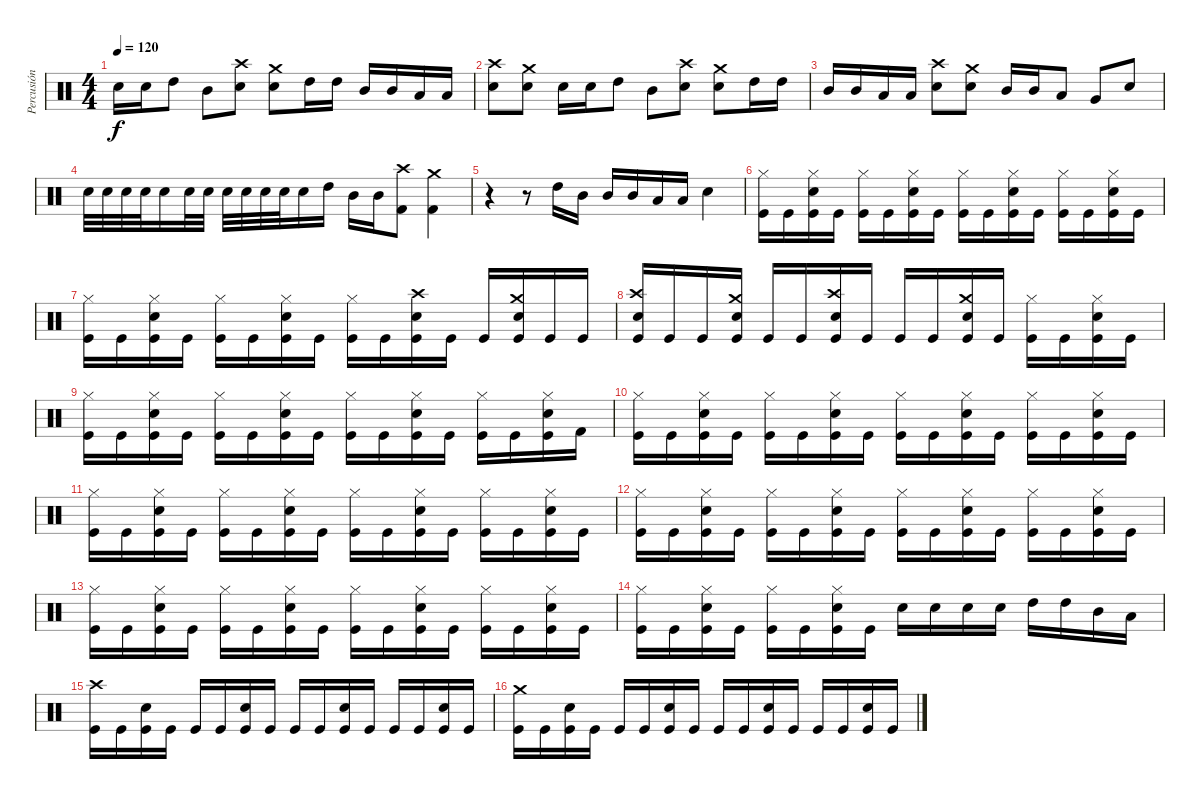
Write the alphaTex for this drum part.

\track ("Percusión" "Percusión") {instrument percussion}
\staff {score}
\articulation defaults
\ts (4 4)
\tempo 120
\clef neutral
\ks c "Snare (hit) 2".16{dy f} "Snare (hit) 2".16 "High Tom (hit)".8 "Mid Tom (hit)".8
("Crash high (hit)" "Snare (hit) 2").8 ("Crash medium (hit)" "Snare (hit) 2").8 "High Tom (hit)".16 "High Tom (hit)".16 "Mid Tom (hit)".16 "Mid Tom (hit)".16 "Low Tom (hit)".16 "Low Tom (hit)".16 |
("Crash high (hit)" "Snare (hit) 2").8 ("Crash medium (hit)" "Snare (hit) 2").8 "Snare (hit) 2".16 "Snare (hit) 2".16 "High Tom (hit)".8 "Mid Tom (hit)".8 ("Crash high (hit)" "Snare (hit) 2").8 ("Crash medium (hit)" "Snare (hit) 2").8 "High Tom (hit)".16 "High Tom (hit)".16 |
"Mid Tom (hit)".16 "Mid Tom (hit)".16 "Low Tom (hit)".16 "Low Tom (hit)".16 ("Crash high (hit)" "Snare (hit) 2").8 ("Crash medium (hit)" "Snare (hit) 2").8 "Mid Tom (hit)".16 "Mid Tom (hit)".16 "Low Tom (hit)".8 "Very Low Tom (hit)".8 "Snare (hit) 2".8 |
"Snare (hit) 2".32 "Snare (hit) 2".32 "Snare (hit) 2".32 "Snare (hit) 2".32 "Snare (hit) 2".16 "Snare (hit) 2".32 "Snare (hit) 2".32 "Snare (hit) 2".32 "Snare (hit) 2".32 "Snare (hit) 2".32 "Snare (hit) 2".32 "Snare (hit) 2".16 "High Tom (hit)".16 "Mid Tom (hit)".16 "Mid Tom (hit)".16 ("Crash high (hit)" "Kick (hit) 2").8 ("Crash medium (hit)" "Kick (hit) 2").4 |
r.4 r.8 "High Tom (hit)".16 "Mid Tom (hit)".16 "Mid Tom (hit)".16 "Mid Tom (hit)".16 "Low Tom (hit)".16 "Low Tom (hit)".16 "Snare (hit) 2".4 |
("Hi-Hat (closed)" "Kick (hit)").16 "Kick (hit)".16 ("Hi-Hat (closed)" "Snare (hit) 2" "Kick (hit)").16 "Kick (hit)".16 ("Hi-Hat (closed)" "Kick (hit)").16 "Kick (hit)".16 ("Hi-Hat (closed)" "Snare (hit) 2" "Kick (hit)").16 "Kick (hit)".16 ("Hi-Hat (closed)" "Kick (hit)").16 "Kick (hit)".16 ("Hi-Hat (closed)" "Snare (hit) 2" "Kick (hit)").16 "Kick (hit)".16 ("Hi-Hat (closed)" "Kick (hit)").16 "Kick (hit)".16 ("Hi-Hat (closed)" "Snare (hit) 2" "Kick (hit)").16 "Kick (hit)".16 |
("Hi-Hat (closed)" "Kick (hit)").16 "Kick (hit)".16 ("Hi-Hat (closed)" "Snare (hit) 2" "Kick (hit)").16 "Kick (hit)".16 ("Hi-Hat (closed)" "Kick (hit)").16 "Kick (hit)".16 ("Hi-Hat (closed)" "Snare (hit) 2" "Kick (hit)").16 "Kick (hit)".16 ("Hi-Hat (closed)" "Kick (hit)").16 "Kick (hit)".16 ("Crash high (hit)" "Snare (hit) 2" "Kick (hit)").16 "Kick (hit)".16 "Kick (hit)".16 ("Crash medium (hit)" "Snare (hit) 2" "Kick (hit)").16 "Kick (hit)".16 "Kick (hit)".16 |
("Crash high (hit)" "Snare (hit) 2" "Kick (hit)").16 "Kick (hit)".16 "Kick (hit)".16 ("Crash medium (hit)" "Snare (hit) 2" "Kick (hit)").16 "Kick (hit)".16 "Kick (hit)".16 ("Crash high (hit)" "Snare (hit) 2" "Kick (hit)").16 "Kick (hit)".16 "Kick (hit)".16 "Kick (hit)".16 ("Crash medium (hit)" "Snare (hit) 2" "Kick (hit)").16 "Kick (hit)".16 ("Hi-Hat (closed)" "Kick (hit)").16 "Kick (hit)".16 ("Hi-Hat (closed)" "Snare (hit) 2" "Kick (hit)").16 "Kick (hit)".16 |
("Hi-Hat (closed)" "Kick (hit)").16 "Kick (hit)".16 ("Hi-Hat (closed)" "Snare (hit) 2" "Kick (hit)").16 "Kick (hit)".16 ("Hi-Hat (closed)" "Kick (hit)").16 "Kick (hit)".16 ("Hi-Hat (closed)" "Snare (hit) 2" "Kick (hit)").16 "Kick (hit)".16 ("Hi-Hat (closed)" "Kick (hit)").16 "Kick (hit)".16 ("Hi-Hat (closed)" "Snare (hit) 2" "Kick (hit)").16 "Kick (hit)".16 ("Hi-Hat (closed)" "Kick (hit)").16 "Kick (hit)".16 ("Hi-Hat (closed)" "Snare (hit) 2" "Kick (hit)").16 "Kick (hit) 2".16 |
("Hi-Hat (closed)" "Kick (hit)").16 "Kick (hit)".16 ("Hi-Hat (closed)" "Snare (hit) 2" "Kick (hit)").16 "Kick (hit)".16 ("Hi-Hat (closed)" "Kick (hit)").16 "Kick (hit)".16 ("Hi-Hat (closed)" "Snare (hit) 2" "Kick (hit)").16 "Kick (hit)".16 ("Hi-Hat (closed)" "Kick (hit)").16 "Kick (hit)".16 ("Hi-Hat (closed)" "Snare (hit) 2" "Kick (hit)").16 "Kick (hit)".16 ("Hi-Hat (closed)" "Kick (hit)").16 "Kick (hit)".16 ("Hi-Hat (closed)" "Snare (hit) 2" "Kick (hit)").16 "Kick (hit)".16 |
("Hi-Hat (closed)" "Kick (hit)").16 "Kick (hit)".16 ("Hi-Hat (closed)" "Snare (hit) 2" "Kick (hit)").16 "Kick (hit)".16 ("Hi-Hat (closed)" "Kick (hit)").16 "Kick (hit)".16 ("Hi-Hat (closed)" "Snare (hit) 2" "Kick (hit)").16 "Kick (hit)".16 ("Hi-Hat (closed)" "Kick (hit)").16 "Kick (hit)".16 ("Hi-Hat (closed)" "Snare (hit) 2" "Kick (hit)").16 "Kick (hit)".16 ("Hi-Hat (closed)" "Kick (hit)").16 "Kick (hit)".16 ("Hi-Hat (closed)" "Snare (hit) 2" "Kick (hit)").16 "Kick (hit)".16 |
("Hi-Hat (closed)" "Kick (hit)").16 "Kick (hit)".16 ("Hi-Hat (closed)" "Snare (hit) 2" "Kick (hit)").16 "Kick (hit)".16 ("Hi-Hat (closed)" "Kick (hit)").16 "Kick (hit)".16 ("Hi-Hat (closed)" "Snare (hit) 2" "Kick (hit)").16 "Kick (hit)".16 ("Hi-Hat (closed)" "Kick (hit)").16 "Kick (hit)".16 ("Hi-Hat (closed)" "Snare (hit) 2" "Kick (hit)").16 "Kick (hit)".16 ("Hi-Hat (closed)" "Kick (hit)").16 "Kick (hit)".16 ("Hi-Hat (closed)" "Snare (hit) 2" "Kick (hit)").16 "Kick (hit)".16 |
("Hi-Hat (closed)" "Kick (hit)").16 "Kick (hit)".16 ("Hi-Hat (closed)" "Snare (hit) 2" "Kick (hit)").16 "Kick (hit)".16 ("Hi-Hat (closed)" "Kick (hit)").16 "Kick (hit)".16 ("Hi-Hat (closed)" "Snare (hit) 2" "Kick (hit)").16 "Kick (hit)".16 ("Hi-Hat (closed)" "Kick (hit)").16 "Kick (hit)".16 ("Hi-Hat (closed)" "Snare (hit) 2" "Kick (hit)").16 "Kick (hit)".16 ("Hi-Hat (closed)" "Kick (hit)").16 "Kick (hit)".16 ("Hi-Hat (closed)" "Snare (hit) 2" "Kick (hit)").16 "Kick (hit)".16 |
("Hi-Hat (closed)" "Kick (hit)").16 "Kick (hit)".16 ("Hi-Hat (closed)" "Snare (hit) 2" "Kick (hit)").16 "Kick (hit)".16 ("Hi-Hat (closed)" "Kick (hit)").16 "Kick (hit)".16 ("Hi-Hat (closed)" "Snare (hit) 2" "Kick (hit)").16 "Kick (hit)".16 "Snare (hit) 2".16 "Snare (hit) 2".16 "Snare (hit) 2".16 "Snare (hit) 2".16 "High Tom (hit)".16 "High Tom (hit)".16 "Mid Tom (hit)".16 "Low Tom (hit)".16 |
("Crash high (hit)" "Kick (hit)").16 "Kick (hit)".16 ("Snare (hit) 2" "Kick (hit)").16 "Kick (hit)".16 "Kick (hit)".16 "Kick (hit)".16 ("Snare (hit) 2" "Kick (hit)").16 "Kick (hit)".16 "Kick (hit)".16 "Kick (hit)".16 ("Snare (hit) 2" "Kick (hit)").16 "Kick (hit)".16 "Kick (hit)".16 "Kick (hit)".16 ("Snare (hit) 2" "Kick (hit)").16 "Kick (hit)".16 |
("Crash medium (hit)" "Kick (hit)").16 "Kick (hit)".16 ("Snare (hit) 2" "Kick (hit)").16 "Kick (hit)".16 "Kick (hit)".16 "Kick (hit)".16 ("Snare (hit) 2" "Kick (hit)").16 "Kick (hit)".16 "Kick (hit)".16 "Kick (hit)".16 ("Snare (hit) 2" "Kick (hit)").16 "Kick (hit)".16 "Kick (hit)".16 "Kick (hit)".16 ("Snare (hit) 2" "Kick (hit)").16 "Kick (hit)".16
